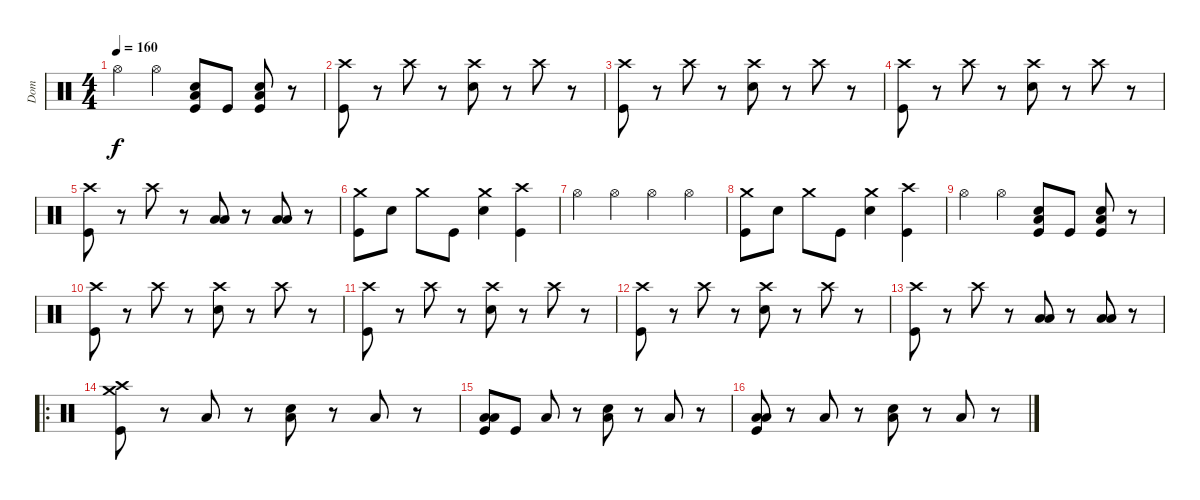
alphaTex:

\track ("Dom" "Dom") {instrument percussion}
\staff {score}
\articulation defaults
\ts (4 4)
\tempo 160
\clef neutral
\ks c "Hi-Hat (open)".4{dy f} "Hi-Hat (open)".4
("Low Floor Tom (hit)" "Snare (hit) 2" "Kick (hit)").8 "Kick (hit)".8 ("Low Floor Tom (hit)" "Snare (hit) 2" "Kick (hit)").8 r.8 |
("Crash high (hit)" "Kick (hit)").8 r.8 "Crash high (hit)".8 r.8 ("Crash high (hit)" "Snare (hit) 2").8 r.8 "Crash high (hit)".8 r.8 |
("Crash high (hit)" "Kick (hit)").8 r.8 "Crash high (hit)".8 r.8 ("Crash high (hit)" "Snare (hit) 2").8 r.8 "Crash high (hit)".8 r.8 |
("Crash high (hit)" "Kick (hit)").8 r.8 "Crash high (hit)".8 r.8 ("Crash high (hit)" "Snare (hit) 2").8 r.8 "Crash high (hit)".8 r.8 |
("Crash high (hit)" "Kick (hit)").8 r.8 "Crash high (hit)".8 r.8 ("Low Floor Tom (hit)" "Low Tom (hit)").8 r.8 ("Low Floor Tom (hit)" "Low Tom (hit)").8 r.8 |
("Crash medium (hit)" "Kick (hit)").8 "Snare (hit) 2".8 "Crash medium (hit)".8 "Kick (hit)".8 ("Crash medium (hit)" "Snare (hit) 2").4 ("Crash high (hit)" "Kick (hit)").4 |
"Hi-Hat (open)".4 "Hi-Hat (open)".4 "Hi-Hat (open)".4 "Hi-Hat (open)".4 |
("Crash medium (hit)" "Kick (hit)").8 "Snare (hit) 2".8 "Crash medium (hit)".8 "Kick (hit)".8 ("Crash medium (hit)" "Snare (hit) 2").4 ("Crash high (hit)" "Kick (hit)").4 |
"Hi-Hat (open)".4 "Hi-Hat (open)".4 ("Low Floor Tom (hit)" "Snare (hit) 2" "Kick (hit)").8 "Kick (hit)".8 ("Low Floor Tom (hit)" "Snare (hit) 2" "Kick (hit)").8 r.8 |
("Crash high (hit)" "Kick (hit)").8 r.8 "Crash high (hit)".8 r.8 ("Crash high (hit)" "Snare (hit) 2").8 r.8 "Crash high (hit)".8 r.8 |
("Crash high (hit)" "Kick (hit)").8 r.8 "Crash high (hit)".8 r.8 ("Crash high (hit)" "Snare (hit) 2").8 r.8 "Crash high (hit)".8 r.8 |
("Crash high (hit)" "Kick (hit)").8 r.8 "Crash high (hit)".8 r.8 ("Crash high (hit)" "Snare (hit) 2").8 r.8 "Crash high (hit)".8 r.8 |
("Crash high (hit)" "Kick (hit)").8 r.8 "Crash high (hit)".8 r.8 ("Low Floor Tom (hit)" "Low Tom (hit)").8 r.8 ("Low Floor Tom (hit)" "Low Tom (hit)").8 r.8 |
\ro
("Crash high (hit)" "Crash medium (hit)" "Kick (hit)").8 r.8 "Low Floor Tom (hit)".8 r.8 ("Low Floor Tom (hit)" "Snare (hit) 2").8 r.8 "Low Floor Tom (hit)".8 r.8 |
("Low Floor Tom (hit)" "Low Tom (hit)" "Kick (hit)").8 "Kick (hit)".8 "Low Floor Tom (hit)".8 r.8 ("Low Floor Tom (hit)" "Snare (hit) 2").8 r.8 "Low Floor Tom (hit)".8 r.8 |
("Low Floor Tom (hit)" "Low Tom (hit)" "Kick (hit)").8 r.8 "Low Floor Tom (hit)".8 r.8 ("Low Floor Tom (hit)" "Snare (hit) 2").8 r.8 "Low Floor Tom (hit)".8 r.8
